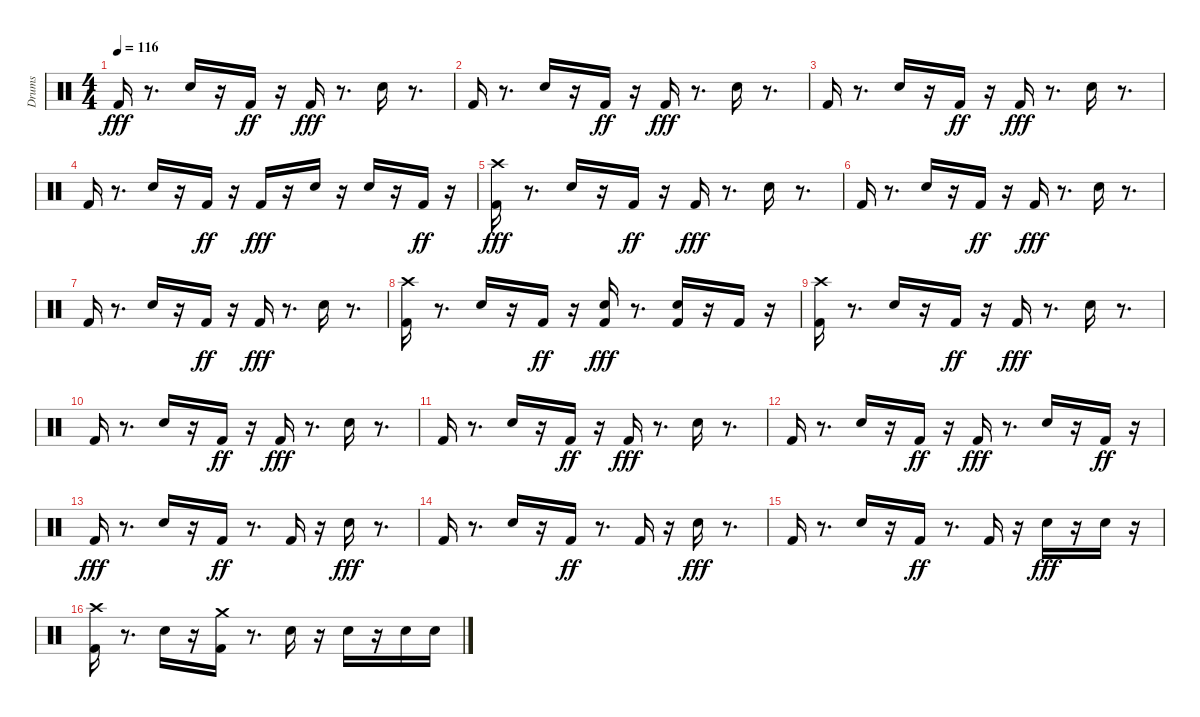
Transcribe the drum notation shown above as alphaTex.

\track ("Drums" "Drums") {instrument percussion}
\staff {score}
\articulation defaults
\ts (4 4)
\tempo 116
\clef neutral
\ks c "Kick (hit) 2".16{dy fff}
r.8{d} "Snare (hit) 2".16 r.16 "Kick (hit) 2".16{dy ff} r.16 "Kick (hit) 2".16{dy fff} r.8{d} "Snare (hit) 2".16 r.8{d} |
"Kick (hit) 2".16 r.8{d} "Snare (hit) 2".16 r.16 "Kick (hit) 2".16{dy ff} r.16 "Kick (hit) 2".16{dy fff} r.8{d} "Snare (hit) 2".16 r.8{d} |
"Kick (hit) 2".16 r.8{d} "Snare (hit) 2".16 r.16 "Kick (hit) 2".16{dy ff} r.16 "Kick (hit) 2".16{dy fff} r.8{d} "Snare (hit) 2".16 r.8{d} |
"Kick (hit) 2".16 r.8{d} "Snare (hit) 2".16 r.16 "Kick (hit) 2".16{dy ff} r.16 "Kick (hit) 2".16{dy fff} r.16 "Snare (hit) 2".16 r.16 "Snare (hit) 2".16 r.16 "Kick (hit) 2".16{dy ff} r.16 |
("Crash high (hit)" "Kick (hit) 2").16{dy fff} r.8{d} "Snare (hit) 2".16 r.16 "Kick (hit) 2".16{dy ff} r.16 "Kick (hit) 2".16{dy fff} r.8{d} "Snare (hit) 2".16 r.8{d} |
"Kick (hit) 2".16 r.8{d} "Snare (hit) 2".16 r.16 "Kick (hit) 2".16{dy ff} r.16 "Kick (hit) 2".16{dy fff} r.8{d} "Snare (hit) 2".16 r.8{d} |
"Kick (hit) 2".16 r.8{d} "Snare (hit) 2".16 r.16 "Kick (hit) 2".16{dy ff} r.16 "Kick (hit) 2".16{dy fff} r.8{d} "Snare (hit) 2".16 r.8{d} |
("Crash high (hit)" "Kick (hit) 2").16 r.8{d} "Snare (hit) 2".16 r.16 "Kick (hit) 2".16{dy ff} r.16 ("Kick (hit) 2" "Snare (hit) 2").16{dy fff} r.8{d} ("Kick (hit) 2" "Snare (hit) 2").16 r.16 "Kick (hit) 2".16 r.16 |
("Crash high (hit)" "Kick (hit) 2").16 r.8{d} "Snare (hit) 2".16 r.16 "Kick (hit) 2".16{dy ff} r.16 "Kick (hit) 2".16{dy fff} r.8{d} "Snare (hit) 2".16 r.8{d} |
"Kick (hit) 2".16 r.8{d} "Snare (hit) 2".16 r.16 "Kick (hit) 2".16{dy ff} r.16 "Kick (hit) 2".16{dy fff} r.8{d} "Snare (hit) 2".16 r.8{d} |
"Kick (hit) 2".16 r.8{d} "Snare (hit) 2".16 r.16 "Kick (hit) 2".16{dy ff} r.16 "Kick (hit) 2".16{dy fff} r.8{d} "Snare (hit) 2".16 r.8{d} |
"Kick (hit) 2".16 r.8{d} "Snare (hit) 2".16 r.16 "Kick (hit) 2".16{dy ff} r.16 "Kick (hit) 2".16{dy fff} r.8{d} "Snare (hit) 2".16 r.16 "Kick (hit) 2".16{dy ff} r.16 |
"Kick (hit) 2".16{dy fff} r.8{d} "Snare (hit) 2".16 r.16 "Kick (hit) 2".16{dy ff} r.8{d} "Kick (hit) 2".16 r.16 "Snare (hit) 2".16{dy fff} r.8{d} |
"Kick (hit) 2".16 r.8{d} "Snare (hit) 2".16 r.16 "Kick (hit) 2".16{dy ff} r.8{d} "Kick (hit) 2".16 r.16 "Snare (hit) 2".16{dy fff} r.8{d} |
"Kick (hit) 2".16 r.8{d} "Snare (hit) 2".16 r.16 "Kick (hit) 2".16{dy ff} r.8{d} "Kick (hit) 2".16 r.16 "Snare (hit) 2".16{dy fff} r.16 "Snare (hit) 2".16 r.16 |
("Crash high (hit)" "Kick (hit) 2").16 r.8{d} "Snare (hit) 2".16 r.16 ("Crash medium (hit)" "Kick (hit) 2").16 r.8{d} "Snare (hit) 2".16 r.16 "Snare (hit) 2".16 r.16 "Snare (hit) 2".16 "Snare (hit) 2".16
